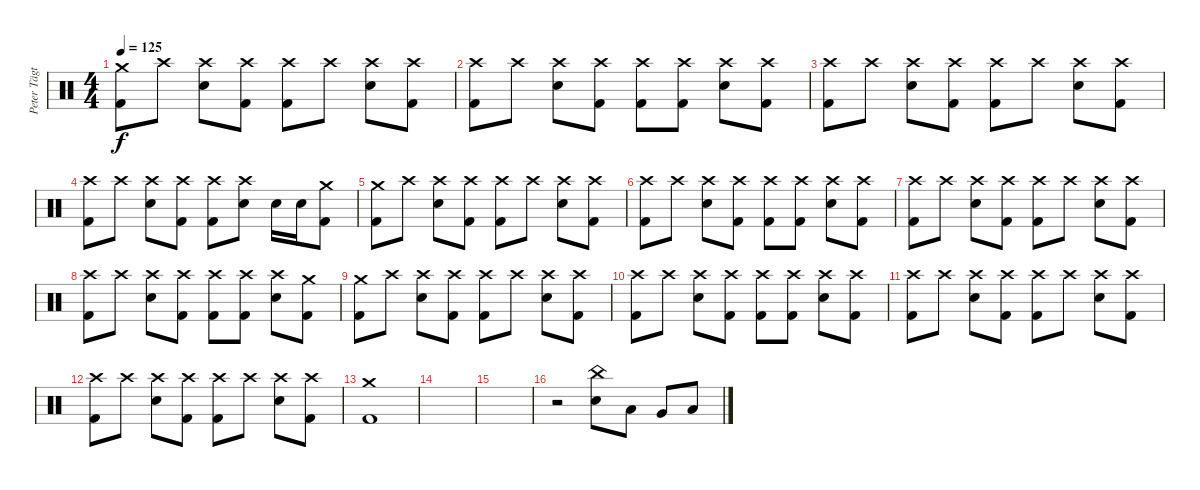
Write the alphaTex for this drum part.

\track ("Peter Tägtgren" "Peter Tägt") {instrument percussion}
\staff {score}
\articulation defaults
\ts (4 4)
\tempo 125
\clef neutral
\ks c
("Crash medium (hit)" "Kick (hit) 2").8{dy f} "Crash high (hit)".8 ("Crash high (hit)" "Electric Snare (hit)").8 ("Crash high (hit)" "Kick (hit) 2").8 ("Crash high (hit)" "Kick (hit) 2").8 "Crash high (hit)".8 ("Crash high (hit)" "Electric Snare (hit)").8 ("Crash high (hit)" "Kick (hit) 2").8 |
("Crash high (hit)" "Kick (hit) 2").8 "Crash high (hit)".8 ("Crash high (hit)" "Electric Snare (hit)").8 ("Crash high (hit)" "Kick (hit) 2").8 ("Crash high (hit)" "Kick (hit) 2").8 ("Crash high (hit)" "Kick (hit) 2").8 ("Crash high (hit)" "Electric Snare (hit)").8 ("Crash high (hit)" "Kick (hit) 2").8 |
("Crash high (hit)" "Kick (hit) 2").8 "Crash high (hit)".8 ("Crash high (hit)" "Electric Snare (hit)").8 ("Crash high (hit)" "Kick (hit) 2").8 ("Crash high (hit)" "Kick (hit) 2").8 "Crash high (hit)".8 ("Crash high (hit)" "Electric Snare (hit)").8 ("Crash high (hit)" "Kick (hit) 2").8 |
("Crash high (hit)" "Kick (hit) 2").8 "Crash high (hit)".8 ("Crash high (hit)" "Electric Snare (hit)").8 ("Crash high (hit)" "Kick (hit) 2").8 ("Crash high (hit)" "Kick (hit) 2").8 ("Crash high (hit)" "Electric Snare (hit)").8 "Electric Snare (hit)".16 "Electric Snare (hit)".16 ("Crash medium (hit)" "Kick (hit) 2").8 |
("Crash medium (hit)" "Kick (hit) 2").8 "Crash high (hit)".8 ("Crash high (hit)" "Electric Snare (hit)").8 ("Crash high (hit)" "Kick (hit) 2").8 ("Crash high (hit)" "Kick (hit) 2").8 "Crash high (hit)".8 ("Crash high (hit)" "Electric Snare (hit)").8 ("Crash high (hit)" "Kick (hit) 2").8 |
("Crash high (hit)" "Kick (hit) 2").8 "Crash high (hit)".8 ("Crash high (hit)" "Electric Snare (hit)").8 ("Crash high (hit)" "Kick (hit) 2").8 ("Crash high (hit)" "Kick (hit) 2").8 ("Crash high (hit)" "Kick (hit) 2").8 ("Crash high (hit)" "Electric Snare (hit)").8 ("Crash high (hit)" "Kick (hit) 2").8 |
("Crash high (hit)" "Kick (hit) 2").8 "Crash high (hit)".8 ("Crash high (hit)" "Electric Snare (hit)").8 ("Crash high (hit)" "Kick (hit) 2").8 ("Crash high (hit)" "Kick (hit) 2").8 "Crash high (hit)".8 ("Crash high (hit)" "Electric Snare (hit)").8 ("Crash high (hit)" "Kick (hit) 2").8 |
("Crash high (hit)" "Kick (hit) 2").8 "Crash high (hit)".8 ("Crash high (hit)" "Electric Snare (hit)").8 ("Crash high (hit)" "Kick (hit) 2").8 ("Crash high (hit)" "Kick (hit) 2").8 ("Crash high (hit)" "Kick (hit) 2").8 ("Crash high (hit)" "Electric Snare (hit)").8 ("Crash medium (hit)" "Kick (hit) 2").8 |
("Crash medium (hit)" "Kick (hit) 2").8 "Crash high (hit)".8 ("Crash high (hit)" "Electric Snare (hit)").8 ("Crash high (hit)" "Kick (hit) 2").8 ("Crash high (hit)" "Kick (hit) 2").8 "Crash high (hit)".8 ("Crash high (hit)" "Electric Snare (hit)").8 ("Crash high (hit)" "Kick (hit) 2").8 |
("Crash high (hit)" "Kick (hit) 2").8 "Crash high (hit)".8 ("Crash high (hit)" "Electric Snare (hit)").8 ("Crash high (hit)" "Kick (hit) 2").8 ("Crash high (hit)" "Kick (hit) 2").8 ("Crash high (hit)" "Kick (hit) 2").8 ("Crash high (hit)" "Electric Snare (hit)").8 ("Crash high (hit)" "Kick (hit) 2").8 |
("Crash high (hit)" "Kick (hit) 2").8 "Crash high (hit)".8 ("Crash high (hit)" "Electric Snare (hit)").8 ("Crash high (hit)" "Kick (hit) 2").8 ("Crash high (hit)" "Kick (hit) 2").8 "Crash high (hit)".8 ("Crash high (hit)" "Electric Snare (hit)").8 ("Crash high (hit)" "Kick (hit) 2").8 |
("Crash high (hit)" "Kick (hit) 2").8 "Crash high (hit)".8 ("Crash high (hit)" "Electric Snare (hit)").8 ("Crash high (hit)" "Kick (hit) 2").8 ("Crash high (hit)" "Kick (hit) 2").8 "Crash high (hit)".8 ("Crash high (hit)" "Electric Snare (hit)").8 ("Crash high (hit)" "Kick (hit) 2").8 |
("Crash medium (hit)" "Kick (hit) 2").1 |
|
|
r.2 ("China (hit)" "Electric Snare (hit)").8 "Low Tom (hit)".8 "Very Low Tom (hit)".8 "Low Floor Tom (hit)".8
